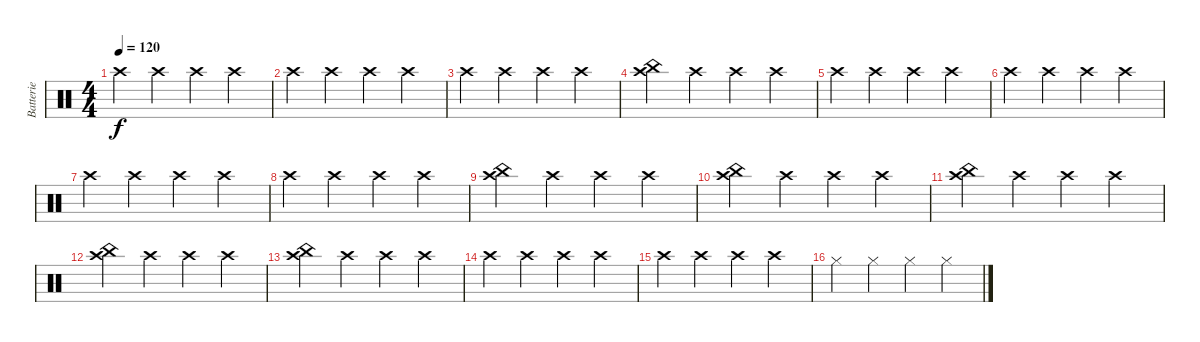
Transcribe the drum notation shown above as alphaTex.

\track ("Batterie" "Batterie") {instrument percussion}
\staff {score}
\articulation defaults
\ts (4 4)
\tempo 120
\clef neutral
\ks c "Crash high (hit)".4{dy f} "Crash high (hit)".4 "Crash high (hit)".4 "Crash high (hit)".4
|
"Crash high (hit)".4 "Crash high (hit)".4 "Crash high (hit)".4 "Crash high (hit)".4 |
"Crash high (hit)".4 "Crash high (hit)".4 "Crash high (hit)".4 "Crash high (hit)".4 |
("China (hit)" "Crash high (hit)").4 "Crash high (hit)".4 "Crash high (hit)".4 "Crash high (hit)".4 |
"Crash high (hit)".4 "Crash high (hit)".4 "Crash high (hit)".4 "Crash high (hit)".4 |
"Crash high (hit)".4 "Crash high (hit)".4 "Crash high (hit)".4 "Crash high (hit)".4 |
"Crash high (hit)".4 "Crash high (hit)".4 "Crash high (hit)".4 "Crash high (hit)".4 |
"Crash high (hit)".4 "Crash high (hit)".4 "Crash high (hit)".4 "Crash high (hit)".4 |
("China (hit)" "Crash high (hit)").4 "Crash high (hit)".4 "Crash high (hit)".4 "Crash high (hit)".4 |
("China (hit)" "Crash high (hit)").4 "Crash high (hit)".4 "Crash high (hit)".4 "Crash high (hit)".4 |
("China (hit)" "Crash high (hit)").4 "Crash high (hit)".4 "Crash high (hit)".4 "Crash high (hit)".4 |
("China (hit)" "Crash high (hit)").4 "Crash high (hit)".4 "Crash high (hit)".4 "Crash high (hit)".4 |
("China (hit)" "Crash high (hit)").4 "Crash high (hit)".4 "Crash high (hit)".4 "Crash high (hit)".4 |
"Crash high (hit)".4 "Crash high (hit)".4 "Crash high (hit)".4 "Crash high (hit)".4 |
"Crash high (hit)".4 "Crash high (hit)".4 "Crash high (hit)".4 "Crash high (hit)".4 |
"Hi-Hat (closed)".4 "Hi-Hat (closed)".4 "Hi-Hat (closed)".4 "Hi-Hat (closed)".4
